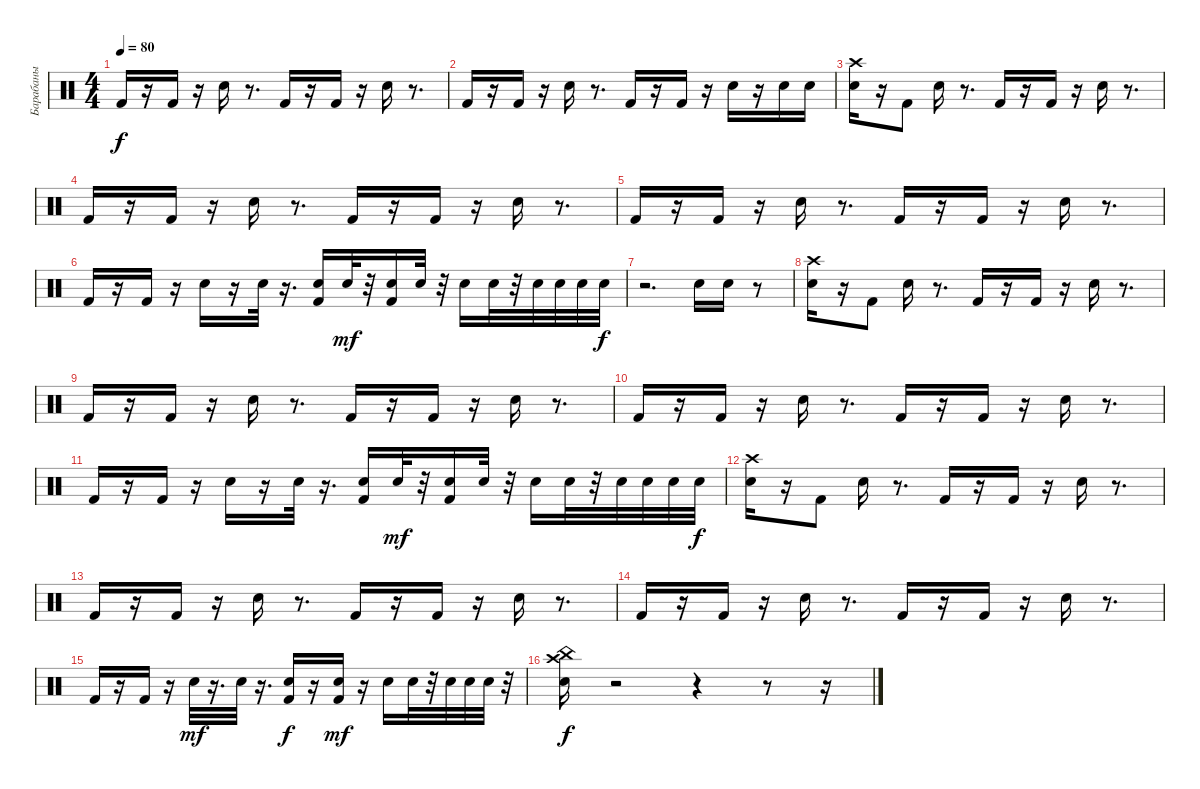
\track ("Барабаны" "Барабаны") {instrument percussion}
\staff {score}
\articulation defaults
\ts (4 4)
\tempo 80
\clef neutral
\ks c "Kick (hit) 2".16{dy f}
r.16 "Kick (hit) 2".16 r.16 "Electric Snare (hit)".16 r.8{d} "Kick (hit) 2".16 r.16 "Kick (hit) 2".16 r.16 "Electric Snare (hit)".16 r.8{d} |
"Kick (hit) 2".16 r.16 "Kick (hit) 2".16 r.16 "Electric Snare (hit)".16 r.8{d} "Kick (hit) 2".16 r.16 "Kick (hit) 2".16 r.16 "Electric Snare (hit)".16 r.16 "Electric Snare (hit)".16 "Electric Snare (hit)".16 |
("Crash high (hit)" "Snare (hit) 2").16 r.16 "Kick (hit) 2".8 "Electric Snare (hit)".16 r.8{d} "Kick (hit) 2".16 r.16 "Kick (hit) 2".16 r.16 "Electric Snare (hit)".16 r.8{d} |
"Kick (hit) 2".16 r.16 "Kick (hit) 2".16 r.16 "Electric Snare (hit)".16 r.8{d} "Kick (hit) 2".16 r.16 "Kick (hit) 2".16 r.16 "Electric Snare (hit)".16 r.8{d} |
"Kick (hit) 2".16 r.16 "Kick (hit) 2".16 r.16 "Electric Snare (hit)".16 r.8{d} "Kick (hit) 2".16 r.16 "Kick (hit) 2".16 r.16 "Electric Snare (hit)".16 r.8{d} |
"Kick (hit) 2".16 r.16 "Kick (hit) 2".16 r.16 "Electric Snare (hit)".16 r.16 "Electric Snare (hit)".32 r.16{d} ("Electric Snare (hit)" "Kick (hit) 2").16 "Electric Snare (hit)".32{dy mf} r.32 ("Electric Snare (hit)" "Kick (hit) 2").16 "Electric Snare (hit)".32 r.32 "Electric Snare (hit)".16 "Electric Snare (hit)".32 r.32 "Electric Snare (hit)".32 "Electric Snare (hit)".32 "Electric Snare (hit)".32 "Electric Snare (hit)".32{dy f} |
r.2{d} "Electric Snare (hit)".16 "Electric Snare (hit)".16 r.8 |
("Crash high (hit)" "Snare (hit) 2").16 r.16 "Kick (hit) 2".8 "Electric Snare (hit)".16 r.8{d} "Kick (hit) 2".16 r.16 "Kick (hit) 2".16 r.16 "Electric Snare (hit)".16 r.8{d} |
"Kick (hit) 2".16 r.16 "Kick (hit) 2".16 r.16 "Electric Snare (hit)".16 r.8{d} "Kick (hit) 2".16 r.16 "Kick (hit) 2".16 r.16 "Electric Snare (hit)".16 r.8{d} |
"Kick (hit) 2".16 r.16 "Kick (hit) 2".16 r.16 "Electric Snare (hit)".16 r.8{d} "Kick (hit) 2".16 r.16 "Kick (hit) 2".16 r.16 "Electric Snare (hit)".16 r.8{d} |
"Kick (hit) 2".16 r.16 "Kick (hit) 2".16 r.16 "Electric Snare (hit)".16 r.16 "Electric Snare (hit)".32 r.16{d} ("Electric Snare (hit)" "Kick (hit) 2").16 "Electric Snare (hit)".32{dy mf} r.32 ("Electric Snare (hit)" "Kick (hit) 2").16 "Electric Snare (hit)".32 r.32 "Electric Snare (hit)".16 "Electric Snare (hit)".32 r.32 "Electric Snare (hit)".32 "Electric Snare (hit)".32 "Electric Snare (hit)".32 "Electric Snare (hit)".32{dy f} |
("Crash high (hit)" "Snare (hit) 2").16 r.16 "Kick (hit) 2".8 "Electric Snare (hit)".16 r.8{d} "Kick (hit) 2".16 r.16 "Kick (hit) 2".16 r.16 "Electric Snare (hit)".16 r.8{d} |
"Kick (hit) 2".16 r.16 "Kick (hit) 2".16 r.16 "Electric Snare (hit)".16 r.8{d} "Kick (hit) 2".16 r.16 "Kick (hit) 2".16 r.16 "Electric Snare (hit)".16 r.8{d} |
"Kick (hit) 2".16 r.16 "Kick (hit) 2".16 r.16 "Electric Snare (hit)".16 r.8{d} "Kick (hit) 2".16 r.16 "Kick (hit) 2".16 r.16 "Electric Snare (hit)".16 r.8{d} |
"Kick (hit) 2".16 r.16 "Kick (hit) 2".16 r.16 "Electric Snare (hit)".32{dy mf} r.16{d} "Electric Snare (hit)".32 r.16{d} ("Electric Snare (hit)" "Kick (hit) 2").16{dy f} r.16 ("Electric Snare (hit)" "Kick (hit) 2").16{dy mf} r.16 "Electric Snare (hit)".16 "Electric Snare (hit)".32 r.32 "Electric Snare (hit)".32 "Electric Snare (hit)".32 "Snare (hit) 2".32 r.32 |
("Snare (hit) 2" "Crash high (hit)" "China (hit)").16{dy f} r.2 r.4 r.8 r.16
